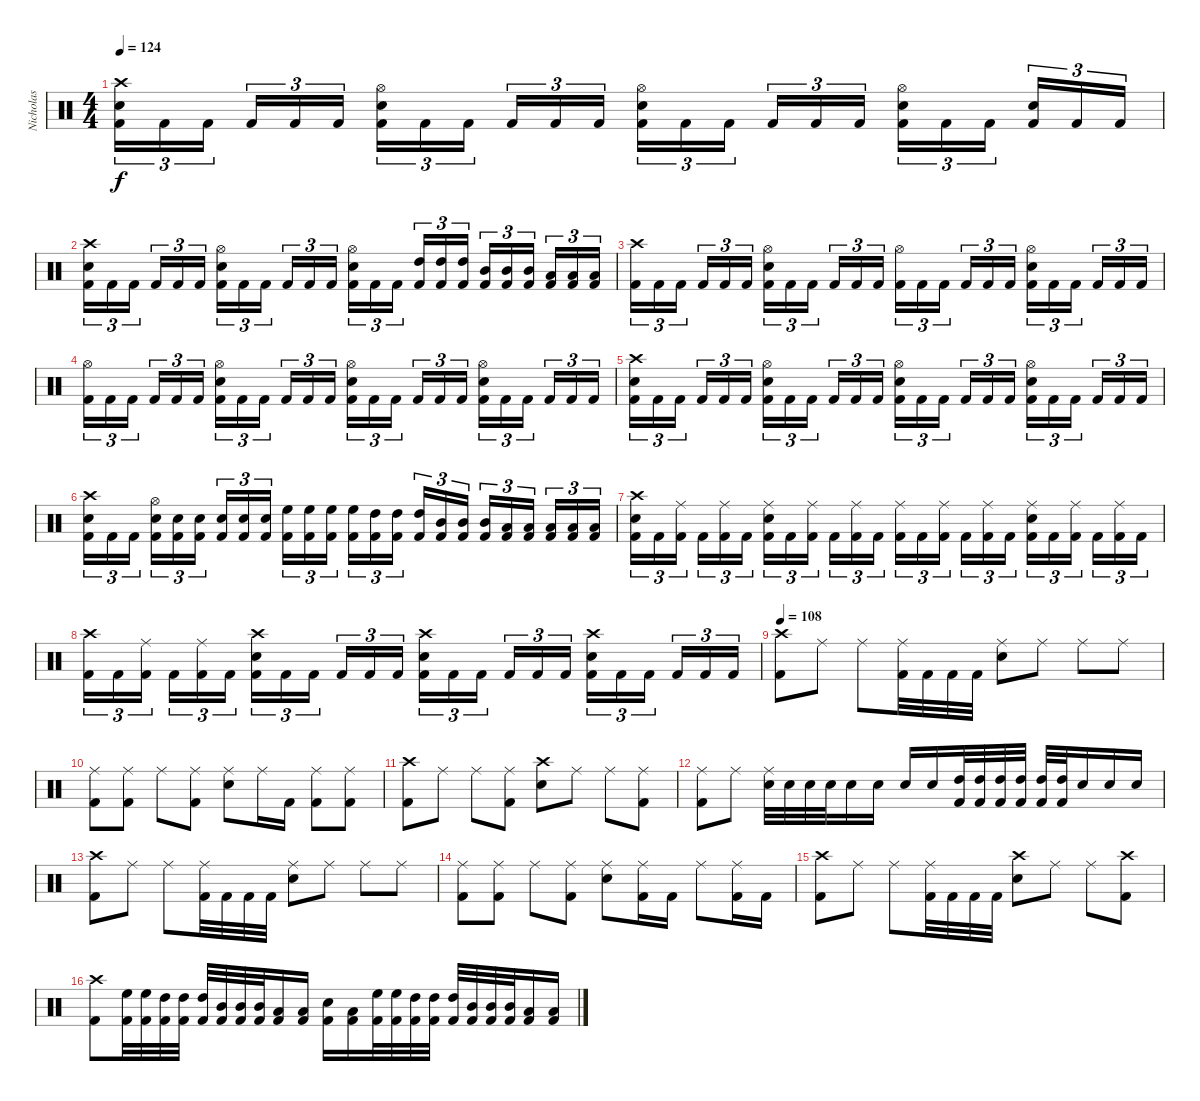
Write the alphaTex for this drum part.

\track ("Nicholas" "Nicholas") {instrument percussion}
\staff {score}
\articulation defaults
\ts (4 4)
\tempo 124
\clef neutral
\ks c
("Kick (hit) 2" "Snare (hit) 2" "Crash high (hit)").16{tu (3 2) dy f} "Kick (hit) 2".16{tu (3 2)} "Kick (hit) 2".16{tu (3 2)} "Kick (hit) 2".16{tu (3 2)} "Kick (hit) 2".16{tu (3 2)} "Kick (hit) 2".16{tu (3 2)} ("Kick (hit) 2" "Snare (hit) 2" "Hi-Hat (open)").16{tu (3 2)} "Kick (hit) 2".16{tu (3 2)} "Kick (hit) 2".16{tu (3 2)} "Kick (hit) 2".16{tu (3 2)} "Kick (hit) 2".16{tu (3 2)} "Kick (hit) 2".16{tu (3 2)} ("Kick (hit) 2" "Snare (hit) 2" "Hi-Hat (open)").16{tu (3 2)} "Kick (hit) 2".16{tu (3 2)} "Kick (hit) 2".16{tu (3 2)} "Kick (hit) 2".16{tu (3 2)} "Kick (hit) 2".16{tu (3 2)} "Kick (hit) 2".16{tu (3 2)} ("Kick (hit) 2" "Snare (hit) 2" "Hi-Hat (open)").16{tu (3 2)} "Kick (hit) 2".16{tu (3 2)} "Kick (hit) 2".16{tu (3 2)} ("Kick (hit) 2" "Snare (hit) 2").16{tu (3 2)} "Kick (hit) 2".16{tu (3 2)} "Kick (hit) 2".16{tu (3 2)} |
("Kick (hit) 2" "Snare (hit) 2" "Crash high (hit)").16{tu (3 2)} "Kick (hit) 2".16{tu (3 2)} "Kick (hit) 2".16{tu (3 2)} "Kick (hit) 2".16{tu (3 2)} "Kick (hit) 2".16{tu (3 2)} "Kick (hit) 2".16{tu (3 2)} ("Kick (hit) 2" "Snare (hit) 2" "Hi-Hat (open)").16{tu (3 2)} "Kick (hit) 2".16{tu (3 2)} "Kick (hit) 2".16{tu (3 2)} "Kick (hit) 2".16{tu (3 2)} "Kick (hit) 2".16{tu (3 2)} "Kick (hit) 2".16{tu (3 2)} ("Kick (hit) 2" "Snare (hit) 2" "Hi-Hat (open)").16{tu (3 2)} "Kick (hit) 2".16{tu (3 2)} "Kick (hit) 2".16{tu (3 2)} ("Kick (hit) 2" "High Tom (hit)").16{tu (3 2)} ("Kick (hit) 2" "High Tom (hit)").16{tu (3 2)} ("Kick (hit) 2" "High Tom (hit)").16{tu (3 2)} ("Kick (hit) 2" "Mid Tom (hit)").16{tu (3 2)} ("Kick (hit) 2" "Mid Tom (hit)").16{tu (3 2)} ("Kick (hit) 2" "Mid Tom (hit)").16{tu (3 2)} ("Kick (hit) 2" "Low Tom (hit)").16{tu (3 2)} ("Kick (hit) 2" "Low Tom (hit)").16{tu (3 2)} ("Kick (hit) 2" "Low Tom (hit)").16{tu (3 2)} |
("Kick (hit) 2" "Crash high (hit)").16{tu (3 2)} "Kick (hit) 2".16{tu (3 2)} "Kick (hit) 2".16{tu (3 2)} "Kick (hit) 2".16{tu (3 2)} "Kick (hit) 2".16{tu (3 2)} "Kick (hit) 2".16{tu (3 2)} ("Kick (hit) 2" "Snare (hit) 2" "Hi-Hat (open)").16{tu (3 2)} "Kick (hit) 2".16{tu (3 2)} "Kick (hit) 2".16{tu (3 2)} "Kick (hit) 2".16{tu (3 2)} "Kick (hit) 2".16{tu (3 2)} "Kick (hit) 2".16{tu (3 2)} ("Kick (hit) 2" "Hi-Hat (open)").16{tu (3 2)} "Kick (hit) 2".16{tu (3 2)} "Kick (hit) 2".16{tu (3 2)} "Kick (hit) 2".16{tu (3 2)} "Kick (hit) 2".16{tu (3 2)} "Kick (hit) 2".16{tu (3 2)} ("Kick (hit) 2" "Snare (hit) 2" "Hi-Hat (open)").16{tu (3 2)} "Kick (hit) 2".16{tu (3 2)} "Kick (hit) 2".16{tu (3 2)} "Kick (hit) 2".16{tu (3 2)} "Kick (hit) 2".16{tu (3 2)} "Kick (hit) 2".16{tu (3 2)} |
("Kick (hit) 2" "Hi-Hat (open)").16{tu (3 2)} "Kick (hit) 2".16{tu (3 2)} "Kick (hit) 2".16{tu (3 2)} "Kick (hit) 2".16{tu (3 2)} "Kick (hit) 2".16{tu (3 2)} "Kick (hit) 2".16{tu (3 2)} ("Kick (hit) 2" "Snare (hit) 2" "Hi-Hat (open)").16{tu (3 2)} "Kick (hit) 2".16{tu (3 2)} "Kick (hit) 2".16{tu (3 2)} "Kick (hit) 2".16{tu (3 2)} "Kick (hit) 2".16{tu (3 2)} "Kick (hit) 2".16{tu (3 2)} ("Kick (hit) 2" "Snare (hit) 2" "Hi-Hat (open)").16{tu (3 2)} "Kick (hit) 2".16{tu (3 2)} "Kick (hit) 2".16{tu (3 2)} "Kick (hit) 2".16{tu (3 2)} "Kick (hit) 2".16{tu (3 2)} "Kick (hit) 2".16{tu (3 2)} ("Kick (hit) 2" "Snare (hit) 2" "Hi-Hat (open)").16{tu (3 2)} "Kick (hit) 2".16{tu (3 2)} "Kick (hit) 2".16{tu (3 2)} "Kick (hit) 2".16{tu (3 2)} "Kick (hit) 2".16{tu (3 2)} "Kick (hit) 2".16{tu (3 2)} |
("Kick (hit) 2" "Snare (hit) 2" "Crash high (hit)").16{tu (3 2)} "Kick (hit) 2".16{tu (3 2)} "Kick (hit) 2".16{tu (3 2)} "Kick (hit) 2".16{tu (3 2)} "Kick (hit) 2".16{tu (3 2)} "Kick (hit) 2".16{tu (3 2)} ("Kick (hit) 2" "Snare (hit) 2" "Hi-Hat (open)").16{tu (3 2)} "Kick (hit) 2".16{tu (3 2)} "Kick (hit) 2".16{tu (3 2)} "Kick (hit) 2".16{tu (3 2)} "Kick (hit) 2".16{tu (3 2)} "Kick (hit) 2".16{tu (3 2)} ("Kick (hit) 2" "Snare (hit) 2" "Hi-Hat (open)").16{tu (3 2)} "Kick (hit) 2".16{tu (3 2)} "Kick (hit) 2".16{tu (3 2)} "Kick (hit) 2".16{tu (3 2)} "Kick (hit) 2".16{tu (3 2)} "Kick (hit) 2".16{tu (3 2)} ("Kick (hit) 2" "Snare (hit) 2" "Hi-Hat (open)").16{tu (3 2)} "Kick (hit) 2".16{tu (3 2)} "Kick (hit) 2".16{tu (3 2)} "Kick (hit) 2".16{tu (3 2)} "Kick (hit) 2".16{tu (3 2)} "Kick (hit) 2".16{tu (3 2)} |
("Kick (hit) 2" "Snare (hit) 2" "Crash high (hit)").16{tu (3 2)} "Kick (hit) 2".16{tu (3 2)} "Kick (hit) 2".16{tu (3 2)} ("Kick (hit) 2" "Snare (hit) 2" "Hi-Hat (open)").16{tu (3 2)} ("Kick (hit) 2" "Snare (hit) 2").16{tu (3 2)} ("Kick (hit) 2" "Snare (hit) 2").16{tu (3 2)} ("Kick (hit) 2" "Snare (hit) 2").16{tu (3 2)} ("Kick (hit) 2" "Snare (hit) 2").16{tu (3 2)} ("Kick (hit) 2" "Snare (hit) 2").16{tu (3 2)} ("Kick (hit) 2" "High Floor Tom (hit)").16{tu (3 2)} ("Kick (hit) 2" "High Floor Tom (hit)").16{tu (3 2)} ("Kick (hit) 2" "High Floor Tom (hit)").16{tu (3 2)} ("Kick (hit) 2" "High Floor Tom (hit)").16{tu (3 2)} ("Kick (hit) 2" "High Tom (hit)").16{tu (3 2)} ("Kick (hit) 2" "High Tom (hit)").16{tu (3 2)} ("Kick (hit) 2" "High Tom (hit)").16{tu (3 2)} ("Kick (hit) 2" "Mid Tom (hit)").16{tu (3 2)} ("Kick (hit) 2" "Mid Tom (hit)").16{tu (3 2)} ("Kick (hit) 2" "Mid Tom (hit)").16{tu (3 2)} ("Kick (hit) 2" "Low Tom (hit)").16{tu (3 2)} ("Kick (hit) 2" "Low Tom (hit)").16{tu (3 2)} ("Kick (hit) 2" "Low Tom (hit)").16{tu (3 2)} ("Kick (hit) 2" "Low Tom (hit)").16{tu (3 2)} ("Kick (hit) 2" "Low Tom (hit)").16{tu (3 2)} |
("Kick (hit) 2" "Snare (hit) 2" "Crash high (hit)").16{tu (3 2)} "Kick (hit) 2".16{tu (3 2)} ("Kick (hit) 2" "Ride (middle)").16{tu (3 2)} "Kick (hit) 2".16{tu (3 2)} ("Kick (hit) 2" "Ride (middle)").16{tu (3 2)} "Kick (hit) 2".16{tu (3 2)} ("Kick (hit) 2" "Snare (hit) 2" "Ride (middle)").16{tu (3 2)} "Kick (hit) 2".16{tu (3 2)} ("Kick (hit) 2" "Ride (middle)").16{tu (3 2)} "Kick (hit) 2".16{tu (3 2)} ("Kick (hit) 2" "Ride (middle)").16{tu (3 2)} "Kick (hit) 2".16{tu (3 2)} ("Kick (hit) 2" "Ride (middle)").16{tu (3 2)} "Kick (hit) 2".16{tu (3 2)} ("Kick (hit) 2" "Ride (middle)").16{tu (3 2)} "Kick (hit) 2".16{tu (3 2)} ("Kick (hit) 2" "Ride (middle)").16{tu (3 2)} "Kick (hit) 2".16{tu (3 2)} ("Kick (hit) 2" "Snare (hit) 2" "Ride (middle)").16{tu (3 2)} "Kick (hit) 2".16{tu (3 2)} ("Kick (hit) 2" "Ride (middle)").16{tu (3 2)} "Kick (hit) 2".16{tu (3 2)} ("Kick (hit) 2" "Ride (middle)").16{tu (3 2)} "Kick (hit) 2".16{tu (3 2)} |
("Kick (hit) 2" "Crash high (hit)").16{tu (3 2)} "Kick (hit) 2".16{tu (3 2)} ("Kick (hit) 2" "Ride (middle)").16{tu (3 2)} "Kick (hit) 2".16{tu (3 2)} ("Kick (hit) 2" "Ride (middle)").16{tu (3 2)} "Kick (hit) 2".16{tu (3 2)} ("Kick (hit) 2" "Snare (hit) 2" "Crash high (hit)").16{tu (3 2)} "Kick (hit) 2".16{tu (3 2)} "Kick (hit) 2".16{tu (3 2)} "Kick (hit) 2".16{tu (3 2)} "Kick (hit) 2".16{tu (3 2)} "Kick (hit) 2".16{tu (3 2)} ("Kick (hit) 2" "Snare (hit) 2" "Crash high (hit)").16{tu (3 2)} "Kick (hit) 2".16{tu (3 2)} "Kick (hit) 2".16{tu (3 2)} "Kick (hit) 2".16{tu (3 2)} "Kick (hit) 2".16{tu (3 2)} "Kick (hit) 2".16{tu (3 2)} ("Kick (hit) 2" "Snare (hit) 2" "Crash high (hit)").16{tu (3 2)} "Kick (hit) 2".16{tu (3 2)} "Kick (hit) 2".16{tu (3 2)} "Kick (hit) 2".16{tu (3 2)} "Kick (hit) 2".16{tu (3 2)} "Kick (hit) 2".16{tu (3 2)} |
\tempo 108
("Kick (hit) 2" "Crash high (hit)").8 "Ride (middle)".8 "Ride (middle)".8 ("Kick (hit) 2" "Ride (middle)").32 "Kick (hit) 2".32 "Kick (hit) 2".32 "Kick (hit) 2".32 ("Snare (hit) 2" "Ride (middle)").8 "Ride (middle)".8 "Ride (middle)".8 "Ride (middle)".8 |
("Kick (hit) 2" "Ride (middle)").8 ("Kick (hit) 2" "Ride (middle)").8 "Ride (middle)".8 ("Kick (hit) 2" "Ride (middle)").8 ("Snare (hit) 2" "Ride (middle)").8 "Ride (middle)".16 "Kick (hit) 2".16 ("Kick (hit) 2" "Ride (middle)").8 ("Kick (hit) 2" "Ride (middle)").8 |
("Kick (hit) 2" "Crash high (hit)").8 "Ride (middle)".8 "Ride (middle)".8 ("Kick (hit) 2" "Ride (middle)").8 ("Snare (hit) 2" "Crash high (hit)").8 "Ride (middle)".8 "Ride (middle)".8 ("Kick (hit) 2" "Ride (middle)").8 |
("Kick (hit) 2" "Ride (middle)").8 "Ride (middle)".8 ("Snare (hit) 2" "Ride (middle)").32 "Snare (hit) 2".32 "Snare (hit) 2".32 "Snare (hit) 2".32 "Snare (hit) 2".16 "Snare (hit) 2".16 "Snare (hit) 2".16 "Snare (hit) 2".16 ("Kick (hit) 2" "High Tom (hit)").32 ("Kick (hit) 2" "High Tom (hit)").32 ("Kick (hit) 2" "High Tom (hit)").32 ("Kick (hit) 2" "High Tom (hit)").32 ("Kick (hit) 2" "High Tom (hit)").32 ("Kick (hit) 2" "High Tom (hit)").32 "Snare (hit) 2".16 "Snare (hit) 2".16 "Snare (hit) 2".16 |
("Kick (hit) 2" "Crash high (hit)").8 "Ride (middle)".8 "Ride (middle)".8 ("Kick (hit) 2" "Ride (middle)").32 "Kick (hit) 2".32 "Kick (hit) 2".32 "Kick (hit) 2".32 ("Snare (hit) 2" "Ride (middle)").8 "Ride (middle)".8 "Ride (middle)".8 "Ride (middle)".8 |
("Kick (hit) 2" "Ride (middle)").8 ("Kick (hit) 2" "Ride (middle)").8 "Ride (middle)".8 ("Kick (hit) 2" "Ride (middle)").8 ("Snare (hit) 2" "Ride (middle)").8 ("Kick (hit) 2" "Ride (middle)").16 "Kick (hit) 2".16 "Ride (middle)".8 ("Kick (hit) 2" "Ride (middle)").16 "Kick (hit) 2".16 |
("Kick (hit) 2" "Crash high (hit)").8 "Ride (middle)".8 "Ride (middle)".8 ("Kick (hit) 2" "Ride (middle)").32 "Kick (hit) 2".32 "Kick (hit) 2".32 "Kick (hit) 2".32 ("Snare (hit) 2" "Crash high (hit)").8 "Ride (middle)".8 "Ride (middle)".8 ("Kick (hit) 2" "Crash high (hit)").8 |
("Kick (hit) 2" "Crash high (hit)").8 ("Kick (hit) 2" "High Floor Tom (hit)").32 ("Kick (hit) 2" "High Floor Tom (hit)").32 ("Kick (hit) 2" "High Tom (hit)").32 ("Kick (hit) 2" "High Tom (hit)").32 ("Kick (hit) 2" "High Tom (hit)").32 ("Kick (hit) 2" "Mid Tom (hit)").32 ("Kick (hit) 2" "Mid Tom (hit)").32 ("Kick (hit) 2" "Mid Tom (hit)").32 ("Kick (hit) 2" "Low Tom (hit)").16 ("Kick (hit) 2" "Low Tom (hit)").16 ("Kick (hit) 2" "Snare (hit) 2").16 ("Kick (hit) 2" "Low Tom (hit)").16 ("Kick (hit) 2" "High Floor Tom (hit)").32 ("Kick (hit) 2" "High Floor Tom (hit)").32 ("Kick (hit) 2" "High Tom (hit)").32 ("Kick (hit) 2" "High Tom (hit)").32 ("Kick (hit) 2" "High Tom (hit)").32 ("Kick (hit) 2" "Mid Tom (hit)").32 ("Kick (hit) 2" "Mid Tom (hit)").32 ("Kick (hit) 2" "Mid Tom (hit)").32 ("Kick (hit) 2" "Low Tom (hit)").16 ("Kick (hit) 2" "Low Tom (hit)").16
